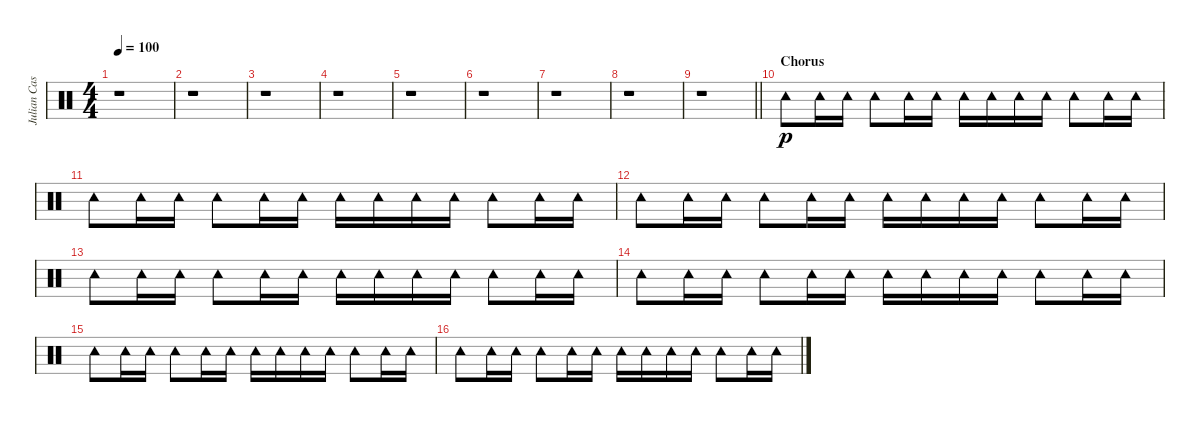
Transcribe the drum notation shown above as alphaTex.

\track ("Julian Casablancas" "Julian Cas") {instrument percussion}
\staff {score}
\articulation defaults
\ts (4 4)
\tempo 100
\clef neutral
\ks c
r.1{dy p} |
r.1 |
r.1 |
r.1 |
r.1 |
r.1 |
r.1 |
r.1 |
\barLineRight lightlight
r.1 |
\section ("" "Chorus")
"Tambourine (hit)".8 "Tambourine (hit)".16 "Tambourine (hit)".16 "Tambourine (hit)".8 "Tambourine (hit)".16 "Tambourine (hit)".16 "Tambourine (hit)".16 "Tambourine (hit)".16 "Tambourine (hit)".16 "Tambourine (hit)".16 "Tambourine (hit)".8 "Tambourine (hit)".16 "Tambourine (hit)".16 |
"Tambourine (hit)".8 "Tambourine (hit)".16 "Tambourine (hit)".16 "Tambourine (hit)".8 "Tambourine (hit)".16 "Tambourine (hit)".16 "Tambourine (hit)".16 "Tambourine (hit)".16 "Tambourine (hit)".16 "Tambourine (hit)".16 "Tambourine (hit)".8 "Tambourine (hit)".16 "Tambourine (hit)".16 |
"Tambourine (hit)".8 "Tambourine (hit)".16 "Tambourine (hit)".16 "Tambourine (hit)".8 "Tambourine (hit)".16 "Tambourine (hit)".16 "Tambourine (hit)".16 "Tambourine (hit)".16 "Tambourine (hit)".16 "Tambourine (hit)".16 "Tambourine (hit)".8 "Tambourine (hit)".16 "Tambourine (hit)".16 |
"Tambourine (hit)".8 "Tambourine (hit)".16 "Tambourine (hit)".16 "Tambourine (hit)".8 "Tambourine (hit)".16 "Tambourine (hit)".16 "Tambourine (hit)".16 "Tambourine (hit)".16 "Tambourine (hit)".16 "Tambourine (hit)".16 "Tambourine (hit)".8 "Tambourine (hit)".16 "Tambourine (hit)".16 |
"Tambourine (hit)".8 "Tambourine (hit)".16 "Tambourine (hit)".16 "Tambourine (hit)".8 "Tambourine (hit)".16 "Tambourine (hit)".16 "Tambourine (hit)".16 "Tambourine (hit)".16 "Tambourine (hit)".16 "Tambourine (hit)".16 "Tambourine (hit)".8 "Tambourine (hit)".16 "Tambourine (hit)".16 |
"Tambourine (hit)".8 "Tambourine (hit)".16 "Tambourine (hit)".16 "Tambourine (hit)".8 "Tambourine (hit)".16 "Tambourine (hit)".16 "Tambourine (hit)".16 "Tambourine (hit)".16 "Tambourine (hit)".16 "Tambourine (hit)".16 "Tambourine (hit)".8 "Tambourine (hit)".16 "Tambourine (hit)".16 |
"Tambourine (hit)".8 "Tambourine (hit)".16 "Tambourine (hit)".16 "Tambourine (hit)".8 "Tambourine (hit)".16 "Tambourine (hit)".16 "Tambourine (hit)".16 "Tambourine (hit)".16 "Tambourine (hit)".16 "Tambourine (hit)".16 "Tambourine (hit)".8 "Tambourine (hit)".16 "Tambourine (hit)".16
